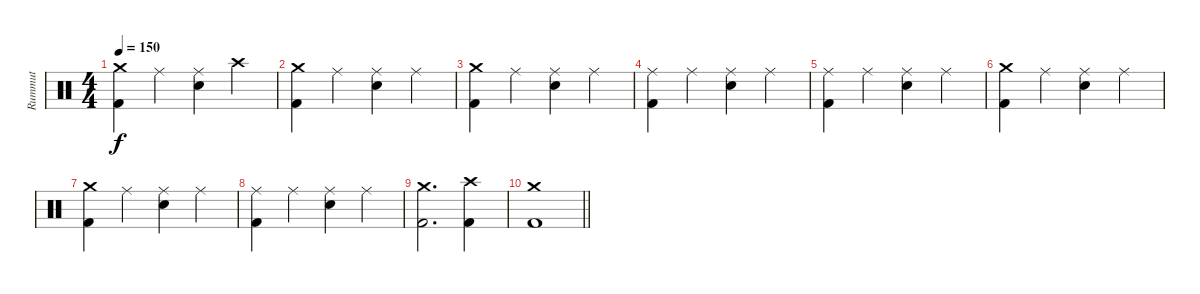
\track ("Rummut" "Rummut") {mute instrument percussion}
\staff {score}
\articulation defaults
\ts (4 4)
\tempo 150
\clef neutral
\ks c
("Crash medium (hit)" "Kick (hit) 2").4{dy f} "Ride (middle)".4 ("Ride (middle)" "Electric Snare (hit)").4 "Crash high (hit)".4 |
("Crash medium (hit)" "Kick (hit) 2").4 "Ride (middle)".4 ("Ride (middle)" "Electric Snare (hit)").4 "Ride (middle)".4 |
("Crash medium (hit)" "Kick (hit) 2").4 "Ride (middle)".4 ("Ride (middle)" "Electric Snare (hit)").4 "Ride (middle)".4 |
("Ride (middle)" "Kick (hit) 2").4 "Ride (middle)".4 ("Ride (middle)" "Electric Snare (hit)").4 "Ride (middle)".4 |
("Ride (middle)" "Kick (hit) 2").4 "Ride (middle)".4 ("Ride (middle)" "Electric Snare (hit)").4 "Ride (middle)".4 |
("Crash medium (hit)" "Kick (hit) 2").4 "Ride (middle)".4 ("Ride (middle)" "Electric Snare (hit)").4 "Ride (middle)".4 |
("Crash medium (hit)" "Kick (hit) 2").4 "Ride (middle)".4 ("Ride (middle)" "Electric Snare (hit)").4 "Ride (middle)".4 |
("Ride (middle)" "Kick (hit) 2").4 "Ride (middle)".4 ("Ride (middle)" "Electric Snare (hit)").4 "Ride (middle)".4 |
("Crash medium (hit)" "Kick (hit) 2").2{d} ("Crash high (hit)" "Kick (hit) 2").4 |
\barLineRight lightlight
("Crash medium (hit)" "Kick (hit) 2").1
